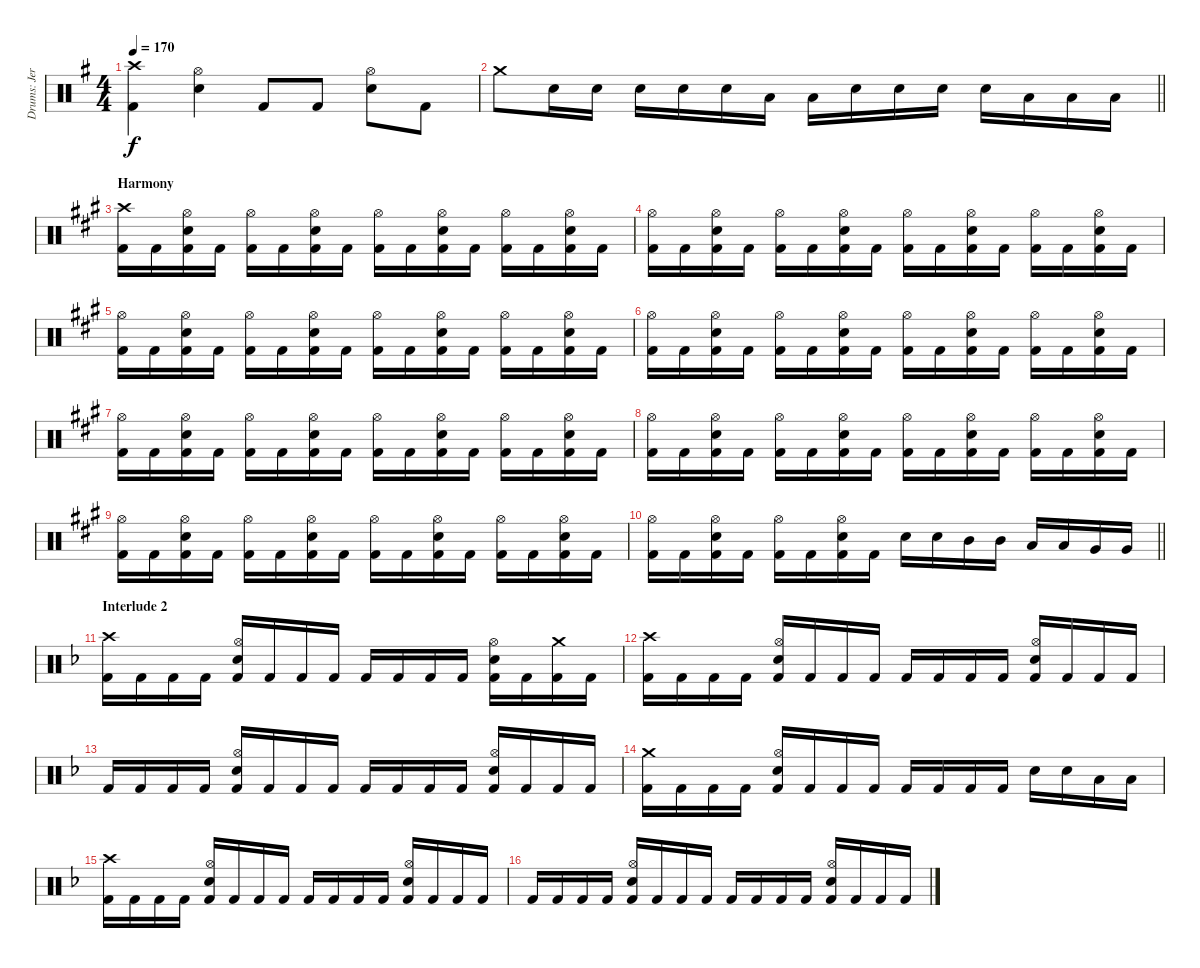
\track ("Drums: Jere Luokkamäki" "Drums: Jer") {instrument percussion}
\staff {score}
\articulation defaults
\ts (4 4)
\tempo 170
\clef neutral
\ks eminor
("Crash high (hit)" "Kick (hit) 2").4{dy f} ("Hi-Hat (open)" "Electric Snare (hit)").4 "Kick (hit) 2".8 "Kick (hit) 2".8 ("Hi-Hat (open)" "Electric Snare (hit)").8 "Kick (hit) 2".8 |
\barLineRight lightlight "Crash medium (hit)".8 "Electric Snare (hit)".16 "Electric Snare (hit)".16 "Electric Snare (hit)".16 "Electric Snare (hit)".16 "Electric Snare (hit)".16 "Low Tom (hit)".16 "Low Tom (hit)".16 "Electric Snare (hit)".16 "Electric Snare (hit)".16 "Electric Snare (hit)".16 "Electric Snare (hit)".16 "Low Tom (hit)".16 "Low Tom (hit)".16 "Low Tom (hit)".16
|
\section ("" "Harmony")
\ks f#minor
("Crash high (hit)" "Kick (hit) 2").16 "Kick (hit) 2".16 ("Hi-Hat (open)" "Electric Snare (hit)" "Kick (hit) 2").16 "Kick (hit) 2".16 ("Hi-Hat (open)" "Kick (hit) 2").16 "Kick (hit) 2".16 ("Hi-Hat (open)" "Electric Snare (hit)" "Kick (hit) 2").16 "Kick (hit) 2".16 ("Hi-Hat (open)" "Kick (hit) 2").16 "Kick (hit) 2".16 ("Hi-Hat (open)" "Electric Snare (hit)" "Kick (hit) 2").16 "Kick (hit) 2".16 ("Hi-Hat (open)" "Kick (hit) 2").16 "Kick (hit) 2".16 ("Hi-Hat (open)" "Electric Snare (hit)" "Kick (hit) 2").16 "Kick (hit) 2".16 |
("Hi-Hat (open)" "Kick (hit) 2").16 "Kick (hit) 2".16 ("Hi-Hat (open)" "Electric Snare (hit)" "Kick (hit) 2").16 "Kick (hit) 2".16 ("Hi-Hat (open)" "Kick (hit) 2").16 "Kick (hit) 2".16 ("Hi-Hat (open)" "Electric Snare (hit)" "Kick (hit) 2").16 "Kick (hit) 2".16 ("Hi-Hat (open)" "Kick (hit) 2").16 "Kick (hit) 2".16 ("Hi-Hat (open)" "Electric Snare (hit)" "Kick (hit) 2").16 "Kick (hit) 2".16 ("Hi-Hat (open)" "Kick (hit) 2").16 "Kick (hit) 2".16 ("Hi-Hat (open)" "Electric Snare (hit)" "Kick (hit) 2").16 "Kick (hit) 2".16 |
("Hi-Hat (open)" "Kick (hit) 2").16 "Kick (hit) 2".16 ("Hi-Hat (open)" "Electric Snare (hit)" "Kick (hit) 2").16 "Kick (hit) 2".16 ("Hi-Hat (open)" "Kick (hit) 2").16 "Kick (hit) 2".16 ("Hi-Hat (open)" "Electric Snare (hit)" "Kick (hit) 2").16 "Kick (hit) 2".16 ("Hi-Hat (open)" "Kick (hit) 2").16 "Kick (hit) 2".16 ("Hi-Hat (open)" "Electric Snare (hit)" "Kick (hit) 2").16 "Kick (hit) 2".16 ("Hi-Hat (open)" "Kick (hit) 2").16 "Kick (hit) 2".16 ("Hi-Hat (open)" "Electric Snare (hit)" "Kick (hit) 2").16 "Kick (hit) 2".16 |
("Hi-Hat (open)" "Kick (hit) 2").16 "Kick (hit) 2".16 ("Hi-Hat (open)" "Electric Snare (hit)" "Kick (hit) 2").16 "Kick (hit) 2".16 ("Hi-Hat (open)" "Kick (hit) 2").16 "Kick (hit) 2".16 ("Hi-Hat (open)" "Electric Snare (hit)" "Kick (hit) 2").16 "Kick (hit) 2".16 ("Hi-Hat (open)" "Kick (hit) 2").16 "Kick (hit) 2".16 ("Hi-Hat (open)" "Electric Snare (hit)" "Kick (hit) 2").16 "Kick (hit) 2".16 ("Hi-Hat (open)" "Kick (hit) 2").16 "Kick (hit) 2".16 ("Hi-Hat (open)" "Electric Snare (hit)" "Kick (hit) 2").16 "Kick (hit) 2".16 |
("Hi-Hat (open)" "Kick (hit) 2").16 "Kick (hit) 2".16 ("Hi-Hat (open)" "Electric Snare (hit)" "Kick (hit) 2").16 "Kick (hit) 2".16 ("Hi-Hat (open)" "Kick (hit) 2").16 "Kick (hit) 2".16 ("Hi-Hat (open)" "Electric Snare (hit)" "Kick (hit) 2").16 "Kick (hit) 2".16 ("Hi-Hat (open)" "Kick (hit) 2").16 "Kick (hit) 2".16 ("Hi-Hat (open)" "Electric Snare (hit)" "Kick (hit) 2").16 "Kick (hit) 2".16 ("Hi-Hat (open)" "Kick (hit) 2").16 "Kick (hit) 2".16 ("Hi-Hat (open)" "Electric Snare (hit)" "Kick (hit) 2").16 "Kick (hit) 2".16 |
("Hi-Hat (open)" "Kick (hit) 2").16 "Kick (hit) 2".16 ("Hi-Hat (open)" "Electric Snare (hit)" "Kick (hit) 2").16 "Kick (hit) 2".16 ("Hi-Hat (open)" "Kick (hit) 2").16 "Kick (hit) 2".16 ("Hi-Hat (open)" "Electric Snare (hit)" "Kick (hit) 2").16 "Kick (hit) 2".16 ("Hi-Hat (open)" "Kick (hit) 2").16 "Kick (hit) 2".16 ("Hi-Hat (open)" "Electric Snare (hit)" "Kick (hit) 2").16 "Kick (hit) 2".16 ("Hi-Hat (open)" "Kick (hit) 2").16 "Kick (hit) 2".16 ("Hi-Hat (open)" "Electric Snare (hit)" "Kick (hit) 2").16 "Kick (hit) 2".16 |
("Hi-Hat (open)" "Kick (hit) 2").16 "Kick (hit) 2".16 ("Hi-Hat (open)" "Electric Snare (hit)" "Kick (hit) 2").16 "Kick (hit) 2".16 ("Hi-Hat (open)" "Kick (hit) 2").16 "Kick (hit) 2".16 ("Hi-Hat (open)" "Electric Snare (hit)" "Kick (hit) 2").16 "Kick (hit) 2".16 ("Hi-Hat (open)" "Kick (hit) 2").16 "Kick (hit) 2".16 ("Hi-Hat (open)" "Electric Snare (hit)" "Kick (hit) 2").16 "Kick (hit) 2".16 ("Hi-Hat (open)" "Kick (hit) 2").16 "Kick (hit) 2".16 ("Hi-Hat (open)" "Electric Snare (hit)" "Kick (hit) 2").16 "Kick (hit) 2".16 |
\barLineRight lightlight
("Hi-Hat (open)" "Kick (hit) 2").16 "Kick (hit) 2".16 ("Hi-Hat (open)" "Electric Snare (hit)" "Kick (hit) 2").16 "Kick (hit) 2".16 ("Hi-Hat (open)" "Kick (hit) 2").16 "Kick (hit) 2".16 ("Hi-Hat (open)" "Electric Snare (hit)" "Kick (hit) 2").16 "Kick (hit) 2".16 "Electric Snare (hit)".16 "Electric Snare (hit)".16 "Mid Tom (hit)".16 "Mid Tom (hit)".16 "Low Tom (hit)".16 "Low Tom (hit)".16 "Very Low Tom (hit)".16 "Very Low Tom (hit)".16 |
\section ("" "Interlude 2")
\ks dminor
("Crash high (hit)" "Kick (hit) 2").16 "Kick (hit) 2".16 "Kick (hit) 2".16 "Kick (hit) 2".16 ("Hi-Hat (open)" "Electric Snare (hit)" "Kick (hit) 2").16 "Kick (hit) 2".16 "Kick (hit) 2".16 "Kick (hit) 2".16 "Kick (hit) 2".16 "Kick (hit) 2".16 "Kick (hit) 2".16 "Kick (hit) 2".16 ("Hi-Hat (open)" "Electric Snare (hit)" "Kick (hit) 2").16 "Kick (hit) 2".16 ("Crash medium (hit)" "Kick (hit) 2").16 "Kick (hit) 2".16 |
("Crash high (hit)" "Kick (hit) 2").16 "Kick (hit) 2".16 "Kick (hit) 2".16 "Kick (hit) 2".16 ("Hi-Hat (open)" "Electric Snare (hit)" "Kick (hit) 2").16 "Kick (hit) 2".16 "Kick (hit) 2".16 "Kick (hit) 2".16 "Kick (hit) 2".16 "Kick (hit) 2".16 "Kick (hit) 2".16 "Kick (hit) 2".16 ("Hi-Hat (open)" "Electric Snare (hit)" "Kick (hit) 2").16 "Kick (hit) 2".16 "Kick (hit) 2".16 "Kick (hit) 2".16 |
"Kick (hit) 2".16 "Kick (hit) 2".16 "Kick (hit) 2".16 "Kick (hit) 2".16 ("Hi-Hat (open)" "Electric Snare (hit)" "Kick (hit) 2").16 "Kick (hit) 2".16 "Kick (hit) 2".16 "Kick (hit) 2".16 "Kick (hit) 2".16 "Kick (hit) 2".16 "Kick (hit) 2".16 "Kick (hit) 2".16 ("Hi-Hat (open)" "Electric Snare (hit)" "Kick (hit) 2").16 "Kick (hit) 2".16 "Kick (hit) 2".16 "Kick (hit) 2".16 |
("Crash medium (hit)" "Kick (hit) 2").16 "Kick (hit) 2".16 "Kick (hit) 2".16 "Kick (hit) 2".16 ("Hi-Hat (open)" "Electric Snare (hit)" "Kick (hit) 2").16 "Kick (hit) 2".16 "Kick (hit) 2".16 "Kick (hit) 2".16 "Kick (hit) 2".16 "Kick (hit) 2".16 "Kick (hit) 2".16 "Kick (hit) 2".16 "Electric Snare (hit)".16 "Electric Snare (hit)".16 "Low Tom (hit)".16 "Low Tom (hit)".16 |
("Crash high (hit)" "Kick (hit) 2").16 "Kick (hit) 2".16 "Kick (hit) 2".16 "Kick (hit) 2".16 ("Hi-Hat (open)" "Electric Snare (hit)" "Kick (hit) 2").16 "Kick (hit) 2".16 "Kick (hit) 2".16 "Kick (hit) 2".16 "Kick (hit) 2".16 "Kick (hit) 2".16 "Kick (hit) 2".16 "Kick (hit) 2".16 ("Hi-Hat (open)" "Electric Snare (hit)" "Kick (hit) 2").16 "Kick (hit) 2".16 "Kick (hit) 2".16 "Kick (hit) 2".16 |
"Kick (hit) 2".16 "Kick (hit) 2".16 "Kick (hit) 2".16 "Kick (hit) 2".16 ("Hi-Hat (open)" "Electric Snare (hit)" "Kick (hit) 2").16 "Kick (hit) 2".16 "Kick (hit) 2".16 "Kick (hit) 2".16 "Kick (hit) 2".16 "Kick (hit) 2".16 "Kick (hit) 2".16 "Kick (hit) 2".16 ("Hi-Hat (open)" "Electric Snare (hit)" "Kick (hit) 2").16 "Kick (hit) 2".16 "Kick (hit) 2".16 "Kick (hit) 2".16
